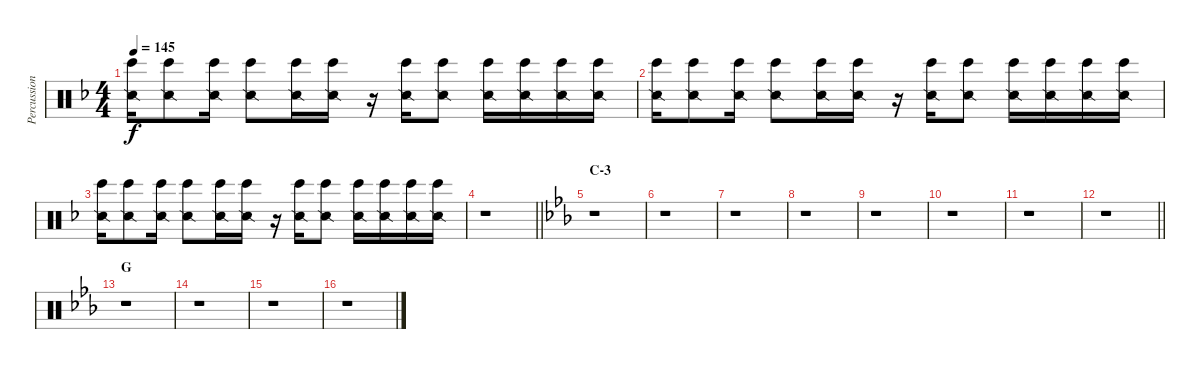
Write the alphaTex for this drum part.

\track ("Percussion" "Percussion") {instrument percussion}
\staff {score}
\articulation defaults
\ts (4 4)
\tempo 145
\clef neutral
\ks f
("Snare (side stick) 2" "Bongo High (hit)").16{dy f} ("Snare (side stick) 2" "Bongo High (hit)").8 ("Snare (side stick) 2" "Bongo High (hit)").16 ("Snare (side stick) 2" "Bongo High (hit)").8 ("Snare (side stick) 2" "Bongo High (hit)").16 ("Snare (side stick) 2" "Bongo High (hit)").16 r.16 ("Snare (side stick) 2" "Bongo High (hit)").16 ("Snare (side stick) 2" "Bongo High (hit)").8 ("Snare (side stick) 2" "Bongo High (hit)").16 ("Snare (side stick) 2" "Bongo High (hit)").16 ("Snare (side stick) 2" "Bongo High (hit)").16 ("Snare (side stick) 2" "Bongo High (hit)").16 |
("Snare (side stick) 2" "Bongo High (hit)").16 ("Snare (side stick) 2" "Bongo High (hit)").8 ("Snare (side stick) 2" "Bongo High (hit)").16 ("Snare (side stick) 2" "Bongo High (hit)").8 ("Snare (side stick) 2" "Bongo High (hit)").16 ("Snare (side stick) 2" "Bongo High (hit)").16 r.16 ("Snare (side stick) 2" "Bongo High (hit)").16 ("Snare (side stick) 2" "Bongo High (hit)").8 ("Snare (side stick) 2" "Bongo High (hit)").16 ("Snare (side stick) 2" "Bongo High (hit)").16 ("Snare (side stick) 2" "Bongo High (hit)").16 ("Snare (side stick) 2" "Bongo High (hit)").16 |
("Snare (side stick) 2" "Bongo High (hit)").16 ("Snare (side stick) 2" "Bongo High (hit)").8 ("Snare (side stick) 2" "Bongo High (hit)").16 ("Snare (side stick) 2" "Bongo High (hit)").8 ("Snare (side stick) 2" "Bongo High (hit)").16 ("Snare (side stick) 2" "Bongo High (hit)").16 r.16 ("Snare (side stick) 2" "Bongo High (hit)").16 ("Snare (side stick) 2" "Bongo High (hit)").8 ("Snare (side stick) 2" "Bongo High (hit)").16 ("Snare (side stick) 2" "Bongo High (hit)").16 ("Snare (side stick) 2" "Bongo High (hit)").16 ("Snare (side stick) 2" "Bongo High (hit)").16 |
\barLineRight lightlight
r.1 |
\section ("" "C-3")
\ks eb
r.1 |
r.1 |
r.1 |
r.1 |
r.1 |
r.1 |
r.1 |
\barLineRight lightlight
r.1 |
\section ("" "G")
r.1 |
r.1 |
r.1 |
r.1
